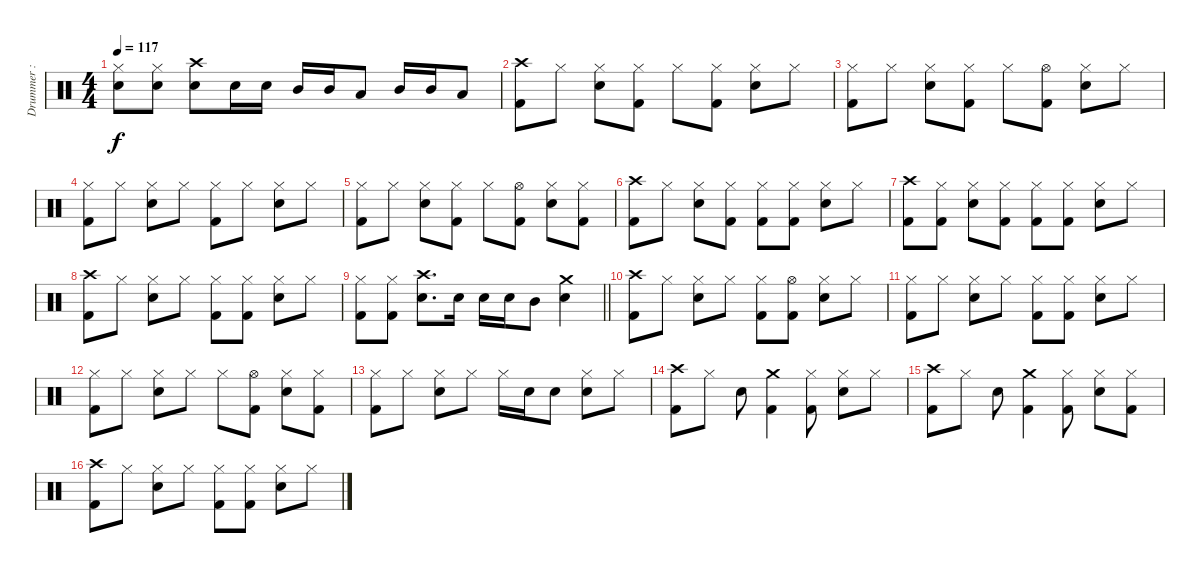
\track ("Drummer : Tainaka Ritsu - San" "Drummer : ") {instrument percussion}
\staff {score}
\articulation defaults
\ts (4 4)
\tempo 117
\clef neutral
\ks c
("Hi-Hat (closed)" "Snare (hit) 2").8{dy f} ("Hi-Hat (closed)" "Snare (hit) 2").8 ("Crash high (hit)" "Snare (hit) 2").8 "Snare (hit) 2".16 "Snare (hit) 2".16 "Mid Tom (hit)".16 "Mid Tom (hit)".16 "Low Tom (hit)".8 "Mid Tom (hit)".16 "Mid Tom (hit)".16 "Low Tom (hit)".8 |
("Crash high (hit)" "Kick (hit) 2").8 "Hi-Hat (closed)".8 ("Hi-Hat (closed)" "Snare (hit) 2").8 ("Hi-Hat (closed)" "Kick (hit) 2").8 "Hi-Hat (closed)".8 ("Hi-Hat (closed)" "Kick (hit) 2").8 ("Hi-Hat (closed)" "Snare (hit) 2").8 "Hi-Hat (closed)".8 |
("Hi-Hat (closed)" "Kick (hit) 2").8 "Hi-Hat (closed)".8 ("Hi-Hat (closed)" "Snare (hit) 2").8 ("Hi-Hat (closed)" "Kick (hit) 2").8 "Hi-Hat (closed)".8 ("Hi-Hat (open)" "Kick (hit) 2").8 ("Hi-Hat (closed)" "Snare (hit) 2").8 "Hi-Hat (closed)".8 |
("Hi-Hat (closed)" "Kick (hit) 2").8 "Hi-Hat (closed)".8 ("Hi-Hat (closed)" "Snare (hit) 2").8 "Hi-Hat (closed)".8 ("Hi-Hat (closed)" "Kick (hit) 2").8 "Hi-Hat (closed)".8 ("Hi-Hat (closed)" "Snare (hit) 2").8 "Hi-Hat (closed)".8 |
("Hi-Hat (closed)" "Kick (hit) 2").8 "Hi-Hat (closed)".8 ("Hi-Hat (closed)" "Snare (hit) 2").8 ("Hi-Hat (closed)" "Kick (hit) 2").8 "Hi-Hat (closed)".8 ("Hi-Hat (open)" "Kick (hit) 2").8 ("Hi-Hat (closed)" "Snare (hit) 2").8 ("Hi-Hat (closed)" "Kick (hit) 2").8 |
("Crash high (hit)" "Kick (hit) 2").8 "Hi-Hat (closed)".8 ("Hi-Hat (closed)" "Snare (hit) 2").8 ("Hi-Hat (closed)" "Kick (hit) 2").8 ("Hi-Hat (closed)" "Kick (hit) 2").8 ("Hi-Hat (closed)" "Kick (hit) 2").8 ("Hi-Hat (closed)" "Snare (hit) 2").8 "Hi-Hat (closed)".8 |
("Crash high (hit)" "Kick (hit) 2").8 ("Hi-Hat (closed)" "Kick (hit) 2").8 ("Hi-Hat (closed)" "Snare (hit) 2").8 ("Hi-Hat (closed)" "Kick (hit) 2").8 ("Hi-Hat (closed)" "Kick (hit) 2").8 ("Hi-Hat (closed)" "Kick (hit) 2").8 ("Hi-Hat (closed)" "Snare (hit) 2").8 "Hi-Hat (closed)".8 |
("Crash high (hit)" "Kick (hit) 2").8 "Hi-Hat (closed)".8 ("Hi-Hat (closed)" "Snare (hit) 2").8 "Hi-Hat (closed)".8 ("Hi-Hat (closed)" "Kick (hit) 2").8 ("Hi-Hat (closed)" "Kick (hit) 2").8 ("Hi-Hat (closed)" "Snare (hit) 2").8 "Hi-Hat (closed)".8 |
\barLineRight lightlight
("Hi-Hat (closed)" "Kick (hit) 2").8 ("Hi-Hat (closed)" "Kick (hit) 2").8 ("Crash high (hit)" "Snare (hit) 2").8{d} "Snare (hit) 2".16 "Snare (hit) 2".16 "Snare (hit) 2".16 "Mid Tom (hit)".8 ("Crash medium (hit)" "Snare (hit) 2").4 |
("Crash high (hit)" "Kick (hit) 2").8 "Hi-Hat (closed)".8 ("Hi-Hat (closed)" "Snare (hit) 2").8 "Hi-Hat (closed)".8 ("Hi-Hat (closed)" "Kick (hit) 2").8 ("Hi-Hat (open)" "Kick (hit) 2").8 ("Hi-Hat (closed)" "Snare (hit) 2").8 "Hi-Hat (closed)".8 |
("Hi-Hat (closed)" "Kick (hit) 2").8 "Hi-Hat (closed)".8 ("Hi-Hat (closed)" "Snare (hit) 2").8 "Hi-Hat (closed)".8 ("Hi-Hat (closed)" "Kick (hit) 2").8 ("Hi-Hat (closed)" "Kick (hit) 2").8 ("Hi-Hat (closed)" "Snare (hit) 2").8 "Hi-Hat (closed)".8 |
("Hi-Hat (closed)" "Kick (hit) 2").8 "Hi-Hat (closed)".8 ("Hi-Hat (closed)" "Snare (hit) 2").8 "Hi-Hat (closed)".8 "Hi-Hat (closed)".8 ("Hi-Hat (open)" "Kick (hit) 2").8 ("Hi-Hat (closed)" "Snare (hit) 2").8 ("Hi-Hat (closed)" "Kick (hit) 2").8 |
("Hi-Hat (closed)" "Kick (hit) 2").8 "Hi-Hat (closed)".8 ("Hi-Hat (closed)" "Snare (hit) 2").8 "Hi-Hat (closed)".8 "Hi-Hat (closed)".16 "Snare (hit) 2".16 "Snare (hit) 2".8 ("Hi-Hat (closed)" "Snare (hit) 2").8 "Hi-Hat (closed)".8 |
("Crash high (hit)" "Kick (hit) 2").8 "Hi-Hat (closed)".8 "Snare (hit) 2".8 ("Crash medium (hit)" "Kick (hit) 2").4 ("Hi-Hat (closed)" "Kick (hit) 2").8 ("Hi-Hat (closed)" "Snare (hit) 2").8 "Hi-Hat (closed)".8 |
("Crash high (hit)" "Kick (hit) 2").8 "Hi-Hat (closed)".8 "Snare (hit) 2".8 ("Crash medium (hit)" "Kick (hit) 2").4 ("Hi-Hat (closed)" "Kick (hit) 2").8 ("Hi-Hat (closed)" "Snare (hit) 2").8 ("Hi-Hat (closed)" "Kick (hit) 2").8 |
("Crash high (hit)" "Kick (hit) 2").8 "Hi-Hat (closed)".8 ("Hi-Hat (closed)" "Snare (hit) 2").8 "Hi-Hat (closed)".8 ("Hi-Hat (closed)" "Kick (hit) 2").8 ("Hi-Hat (closed)" "Kick (hit) 2").8 ("Hi-Hat (closed)" "Snare (hit) 2").8 "Hi-Hat (closed)".8
